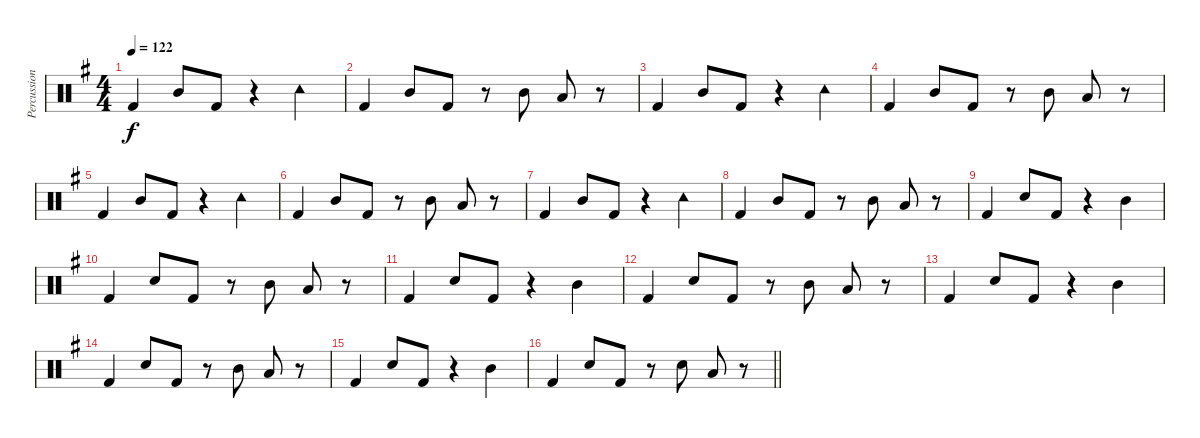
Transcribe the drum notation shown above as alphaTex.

\track ("Percussion" "Percussion") {instrument percussion}
\staff {score}
\articulation defaults
\ts (4 4)
\tempo 122
\clef neutral
\ks g "Kick (hit) 2".4{dy f} "Mid Tom (hit)".8 "Kick (hit) 2".8
r.4 "Tambourine (hit)".4 |
"Kick (hit) 2".4 "Mid Tom (hit)".8 "Kick (hit) 2".8 r.8 "Mid Tom (hit)".8 "Low Tom (hit)".8 r.8 |
"Kick (hit) 2".4 "Mid Tom (hit)".8 "Kick (hit) 2".8 r.4 "Tambourine (hit)".4 |
"Kick (hit) 2".4 "Mid Tom (hit)".8 "Kick (hit) 2".8 r.8 "Mid Tom (hit)".8 "Low Tom (hit)".8 r.8 |
"Kick (hit) 2".4 "Mid Tom (hit)".8 "Kick (hit) 2".8 r.4 "Tambourine (hit)".4 |
"Kick (hit) 2".4 "Mid Tom (hit)".8 "Kick (hit) 2".8 r.8 "Mid Tom (hit)".8 "Low Tom (hit)".8 r.8 |
"Kick (hit) 2".4 "Mid Tom (hit)".8 "Kick (hit) 2".8 r.4 "Tambourine (hit)".4 |
"Kick (hit) 2".4 "Mid Tom (hit)".8 "Kick (hit) 2".8 r.8 "Mid Tom (hit)".8 "Low Tom (hit)".8 r.8 |
"Kick (hit) 2".4 "Snare (hit) 2".8 "Kick (hit) 2".8 r.4 "Mid Tom (hit)".4 |
"Kick (hit) 2".4 "Snare (hit) 2".8 "Kick (hit) 2".8 r.8 "Mid Tom (hit)".8 "Low Tom (hit)".8 r.8 |
"Kick (hit) 2".4 "Snare (hit) 2".8 "Kick (hit) 2".8 r.4 "Mid Tom (hit)".4 |
"Kick (hit) 2".4 "Snare (hit) 2".8 "Kick (hit) 2".8 r.8 "Mid Tom (hit)".8 "Low Tom (hit)".8 r.8 |
"Kick (hit) 2".4 "Snare (hit) 2".8 "Kick (hit) 2".8 r.4 "Mid Tom (hit)".4 |
"Kick (hit) 2".4 "Snare (hit) 2".8 "Kick (hit) 2".8 r.8 "Mid Tom (hit)".8 "Low Tom (hit)".8 r.8 |
"Kick (hit) 2".4 "Snare (hit) 2".8 "Kick (hit) 2".8 r.4 "Mid Tom (hit)".4 |
\barLineRight lightlight "Kick (hit) 2".4 "Snare (hit) 2".8 "Kick (hit) 2".8
r.8 "Snare (hit) 2".8 "Low Tom (hit)".8 r.8
